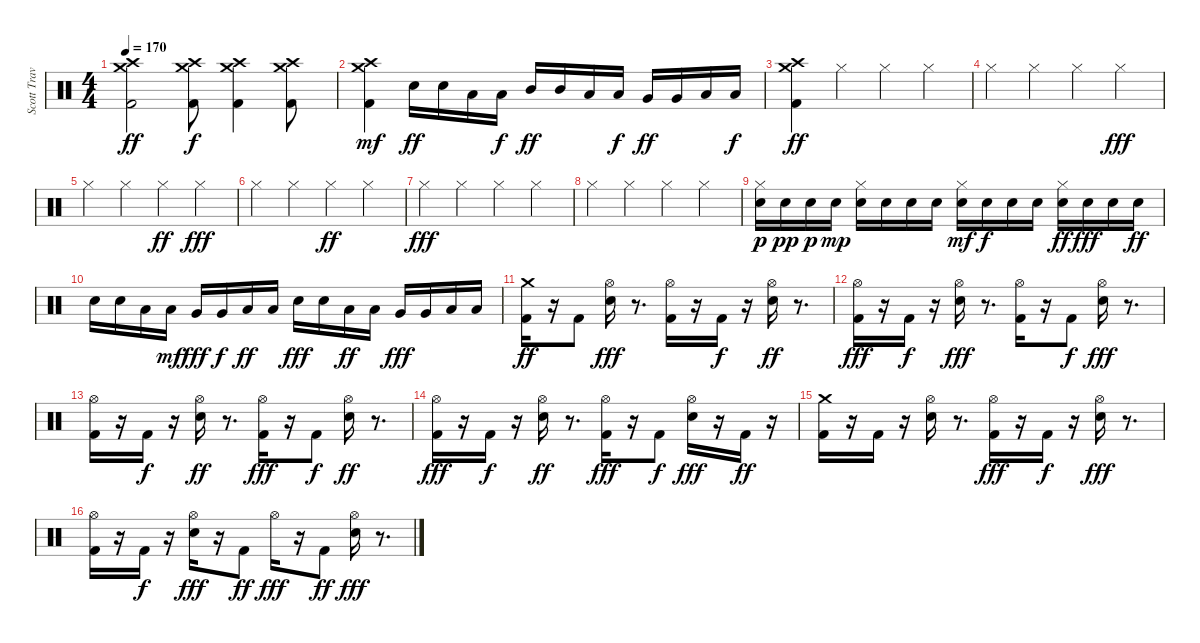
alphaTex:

\track ("Scott Travis" "Scott Trav") {instrument percussion}
\staff {score}
\articulation defaults
\ts (4 4)
\tempo 170
\clef neutral
\ks c
("Crash high (hit)" "Kick (hit) 2" "Crash medium (hit)").2{dy ff} ("Kick (hit) 2" "Crash high (hit)" "Crash medium (hit)").8{dy f} ("Crash high (hit)" "Kick (hit) 2" "Crash medium (hit)").4 ("Kick (hit) 2" "Crash high (hit)" "Crash medium (hit)").8 |
("Crash high (hit)" "Kick (hit) 2" "Crash medium (hit)").4{dy mf} "Snare (hit) 2".16{dy ff} "Snare (hit) 2".16 "Low Floor Tom (hit)".16 "Low Floor Tom (hit)".16{dy f} "Mid Tom (hit)".16{dy ff} "Mid Tom (hit)".16 "Low Floor Tom (hit)".16 "Low Floor Tom (hit)".16{dy f} "Very Low Tom (hit)".16{dy ff} "Very Low Tom (hit)".16 "Low Floor Tom (hit)".16 "Low Floor Tom (hit)".16{dy f} |
("Kick (hit) 2" "Crash high (hit)" "Crash medium (hit)").4{dy ff} "Hi-Hat (closed)".4 "Hi-Hat (closed)".4 "Hi-Hat (closed)".4 |
"Hi-Hat (closed)".4 "Hi-Hat (closed)".4 "Hi-Hat (closed)".4 "Hi-Hat (closed)".4{dy fff} |
"Hi-Hat (closed)".4 "Hi-Hat (closed)".4 "Hi-Hat (closed)".4{dy ff} "Hi-Hat (closed)".4{dy fff} |
"Hi-Hat (closed)".4 "Hi-Hat (closed)".4 "Hi-Hat (closed)".4{dy ff} "Hi-Hat (closed)".4 |
"Hi-Hat (closed)".4{dy fff} "Hi-Hat (closed)".4 "Hi-Hat (closed)".4 "Hi-Hat (closed)".4 |
"Hi-Hat (closed)".4 "Hi-Hat (closed)".4 "Hi-Hat (closed)".4 "Hi-Hat (closed)".4 |
("Hi-Hat (closed)" "Snare (hit) 2").16{dy p} "Snare (hit) 2".16{dy pp} "Snare (hit) 2".16{dy p} "Snare (hit) 2".16{dy mp} ("Hi-Hat (closed)" "Snare (hit) 2").16 "Snare (hit) 2".16 "Snare (hit) 2".16 "Snare (hit) 2".16 ("Hi-Hat (closed)" "Snare (hit) 2").16{dy mf} "Snare (hit) 2".16{dy f} "Snare (hit) 2".16 "Snare (hit) 2".16 ("Hi-Hat (closed)" "Snare (hit) 2").16{dy ff} "Snare (hit) 2".16{dy fff} "Snare (hit) 2".16 "Snare (hit) 2".16{dy ff} |
"Snare (hit) 2".16 "Snare (hit) 2".16 "Low Floor Tom (hit)".16 "Low Floor Tom (hit)".16{dy mf} "Very Low Tom (hit)".16{dy fff} "Very Low Tom (hit)".16{dy f} "Low Floor Tom (hit)".16{dy ff} "Low Floor Tom (hit)".16 "Snare (hit) 2".16{dy fff} "Snare (hit) 2".16 "Low Tom (hit)".16{dy ff} "Low Tom (hit)".16 "Very Low Tom (hit)".16{dy fff} "Very Low Tom (hit)".16 "Low Floor Tom (hit)".16 "Low Floor Tom (hit)".16 |
("Kick (hit) 2" "Crash medium (hit)").16{dy ff} r.16 "Kick (hit) 2".8 ("Hi-Hat (open)" "Snare (hit) 2").16{dy fff} r.8{d} ("Kick (hit) 2" "Hi-Hat (open)").16 r.16 "Kick (hit) 2".16{dy f} r.16 ("Hi-Hat (open)" "Snare (hit) 2").16{dy ff} r.8{d} |
("Hi-Hat (open)" "Kick (hit) 2").16{dy fff} r.16 "Kick (hit) 2".16{dy f} r.16 ("Snare (hit) 2" "Hi-Hat (open)").16{dy fff} r.8{d} ("Kick (hit) 2" "Hi-Hat (open)").16 r.16 "Kick (hit) 2".8{dy f} ("Snare (hit) 2" "Hi-Hat (open)").16{dy fff} r.8{d} |
("Kick (hit) 2" "Hi-Hat (open)").16 r.16 "Kick (hit) 2".16{dy f} r.16 ("Hi-Hat (open)" "Snare (hit) 2").16{dy ff} r.8{d} ("Kick (hit) 2" "Hi-Hat (open)").16{dy fff} r.16 "Kick (hit) 2".8{dy f} ("Hi-Hat (open)" "Snare (hit) 2").16{dy ff} r.8{d} |
("Kick (hit) 2" "Hi-Hat (open)").16{dy fff} r.16 "Kick (hit) 2".16{dy f} r.16 ("Hi-Hat (open)" "Snare (hit) 2").16{dy ff} r.8{d} ("Kick (hit) 2" "Hi-Hat (open)").16{dy fff} r.16 "Kick (hit) 2".8{dy f} ("Snare (hit) 2" "Hi-Hat (open)").16{dy fff} r.16 "Kick (hit) 2".16{dy ff} r.16 |
("Crash medium (hit)" "Kick (hit) 2").16 r.16 "Kick (hit) 2".16 r.16 ("Snare (hit) 2" "Hi-Hat (open)").16 r.8{d} ("Kick (hit) 2" "Hi-Hat (open)").16{dy fff} r.16 "Kick (hit) 2".16{dy f} r.16 ("Snare (hit) 2" "Hi-Hat (open)").16{dy fff} r.8{d} |
("Kick (hit) 2" "Hi-Hat (open)").16 r.16 "Kick (hit) 2".16{dy f} r.16 ("Snare (hit) 2" "Hi-Hat (open)").16{dy fff} r.16 "Kick (hit) 2".8{dy ff} "Hi-Hat (open)".16{dy fff} r.16 "Kick (hit) 2".8{dy ff} ("Snare (hit) 2" "Hi-Hat (open)").16{dy fff} r.8{d}
